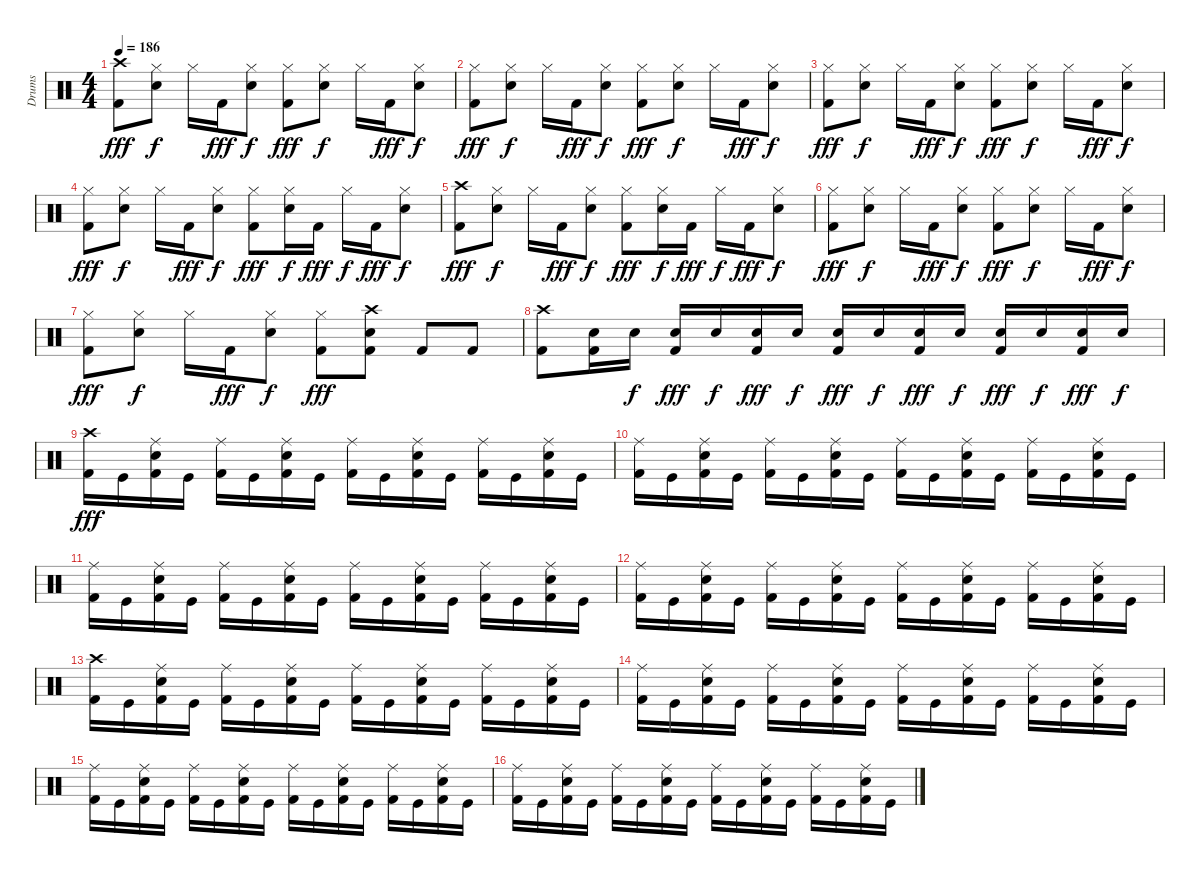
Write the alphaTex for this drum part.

\track ("Drums" "Drums") {instrument percussion}
\staff {score}
\articulation defaults
\ts (4 4)
\tempo 186
\clef neutral
\ks c
("Crash high (hit)" "Kick (hit) 2").8{dy fff} ("Hi-Hat (closed)" "Electric Snare (hit)").8{dy f} "Hi-Hat (closed)".16 "Kick (hit) 2".16{dy fff} ("Hi-Hat (closed)" "Electric Snare (hit)").8{dy f} ("Hi-Hat (closed)" "Kick (hit) 2").8{dy fff} ("Hi-Hat (closed)" "Electric Snare (hit)").8{dy f} "Hi-Hat (closed)".16 "Kick (hit) 2".16{dy fff} ("Hi-Hat (closed)" "Electric Snare (hit)").8{dy f} |
("Hi-Hat (closed)" "Kick (hit) 2").8{dy fff} ("Hi-Hat (closed)" "Electric Snare (hit)").8{dy f} "Hi-Hat (closed)".16 "Kick (hit) 2".16{dy fff} ("Hi-Hat (closed)" "Electric Snare (hit)").8{dy f} ("Hi-Hat (closed)" "Kick (hit) 2").8{dy fff} ("Hi-Hat (closed)" "Electric Snare (hit)").8{dy f} "Hi-Hat (closed)".16 "Kick (hit) 2".16{dy fff} ("Hi-Hat (closed)" "Electric Snare (hit)").8{dy f} |
("Hi-Hat (closed)" "Kick (hit) 2").8{dy fff} ("Hi-Hat (closed)" "Electric Snare (hit)").8{dy f} "Hi-Hat (closed)".16 "Kick (hit) 2".16{dy fff} ("Hi-Hat (closed)" "Electric Snare (hit)").8{dy f} ("Hi-Hat (closed)" "Kick (hit) 2").8{dy fff} ("Hi-Hat (closed)" "Electric Snare (hit)").8{dy f} "Hi-Hat (closed)".16 "Kick (hit) 2".16{dy fff} ("Hi-Hat (closed)" "Electric Snare (hit)").8{dy f} |
("Hi-Hat (closed)" "Kick (hit) 2").8{dy fff} ("Hi-Hat (closed)" "Electric Snare (hit)").8{dy f} "Hi-Hat (closed)".16 "Kick (hit) 2".16{dy fff} ("Hi-Hat (closed)" "Electric Snare (hit)").8{dy f} ("Hi-Hat (closed)" "Kick (hit) 2").8{dy fff} ("Hi-Hat (closed)" "Electric Snare (hit)").16{dy f} "Kick (hit) 2".16{dy fff} "Hi-Hat (closed)".16{dy f} "Kick (hit) 2".16{dy fff} ("Hi-Hat (closed)" "Electric Snare (hit)").8{dy f} |
("Crash high (hit)" "Kick (hit) 2").8{dy fff} ("Hi-Hat (closed)" "Electric Snare (hit)").8{dy f} "Hi-Hat (closed)".16 "Kick (hit) 2".16{dy fff} ("Hi-Hat (closed)" "Electric Snare (hit)").8{dy f} ("Hi-Hat (closed)" "Kick (hit) 2").8{dy fff} ("Hi-Hat (closed)" "Electric Snare (hit)").16{dy f} "Kick (hit) 2".16{dy fff} "Hi-Hat (closed)".16{dy f} "Kick (hit) 2".16{dy fff} ("Hi-Hat (closed)" "Electric Snare (hit)").8{dy f} |
("Hi-Hat (closed)" "Kick (hit) 2").8{dy fff} ("Hi-Hat (closed)" "Electric Snare (hit)").8{dy f} "Hi-Hat (closed)".16 "Kick (hit) 2".16{dy fff} ("Hi-Hat (closed)" "Electric Snare (hit)").8{dy f} ("Hi-Hat (closed)" "Kick (hit) 2").8{dy fff} ("Hi-Hat (closed)" "Electric Snare (hit)").8{dy f} "Hi-Hat (closed)".16 "Kick (hit) 2".16{dy fff} ("Hi-Hat (closed)" "Electric Snare (hit)").8{dy f} |
("Hi-Hat (closed)" "Kick (hit) 2").8{dy fff} ("Hi-Hat (closed)" "Electric Snare (hit)").8{dy f} "Hi-Hat (closed)".16 "Kick (hit) 2".16{dy fff} ("Hi-Hat (closed)" "Electric Snare (hit)").8{dy f} ("Hi-Hat (closed)" "Kick (hit) 2").8{dy fff} ("Crash high (hit)" "Electric Snare (hit)" "Kick (hit) 2").8 "Kick (hit) 2".8 "Kick (hit) 2".8 |
("Crash high (hit)" "Kick (hit) 2").8 ("Electric Snare (hit)" "Kick (hit) 2").16 "Electric Snare (hit)".16{dy f} ("Electric Snare (hit)" "Kick (hit) 2").16{dy fff} "Electric Snare (hit)".16{dy f} ("Electric Snare (hit)" "Kick (hit) 2").16{dy fff} "Electric Snare (hit)".16{dy f} ("Electric Snare (hit)" "Kick (hit) 2").16{dy fff} "Electric Snare (hit)".16{dy f} ("Electric Snare (hit)" "Kick (hit) 2").16{dy fff} "Electric Snare (hit)".16{dy f} ("Electric Snare (hit)" "Kick (hit) 2").16{dy fff} "Electric Snare (hit)".16{dy f} ("Electric Snare (hit)" "Kick (hit) 2").16{dy fff} "Electric Snare (hit)".16{dy f} |
("Crash high (hit)" "Kick (hit) 2").16{dy fff} "Kick (hit)".16 ("Ride (middle)" "Electric Snare (hit)" "Kick (hit) 2").16 "Kick (hit)".16 ("Ride (middle)" "Kick (hit) 2").16 "Kick (hit)".16 ("Ride (middle)" "Electric Snare (hit)" "Kick (hit) 2").16 "Kick (hit)".16 ("Ride (middle)" "Kick (hit) 2").16 "Kick (hit)".16 ("Ride (middle)" "Electric Snare (hit)" "Kick (hit) 2").16 "Kick (hit)".16 ("Ride (middle)" "Kick (hit) 2").16 "Kick (hit)".16 ("Ride (middle)" "Electric Snare (hit)" "Kick (hit) 2").16 "Kick (hit)".16 |
("Ride (middle)" "Kick (hit) 2").16 "Kick (hit)".16 ("Ride (middle)" "Electric Snare (hit)" "Kick (hit) 2").16 "Kick (hit)".16 ("Ride (middle)" "Kick (hit) 2").16 "Kick (hit)".16 ("Ride (middle)" "Electric Snare (hit)" "Kick (hit) 2").16 "Kick (hit)".16 ("Ride (middle)" "Kick (hit) 2").16 "Kick (hit)".16 ("Ride (middle)" "Electric Snare (hit)" "Kick (hit) 2").16 "Kick (hit)".16 ("Ride (middle)" "Kick (hit) 2").16 "Kick (hit)".16 ("Ride (middle)" "Electric Snare (hit)" "Kick (hit) 2").16 "Kick (hit)".16 |
("Ride (middle)" "Kick (hit) 2").16 "Kick (hit)".16 ("Ride (middle)" "Electric Snare (hit)" "Kick (hit) 2").16 "Kick (hit)".16 ("Ride (middle)" "Kick (hit) 2").16 "Kick (hit)".16 ("Ride (middle)" "Electric Snare (hit)" "Kick (hit) 2").16 "Kick (hit)".16 ("Ride (middle)" "Kick (hit) 2").16 "Kick (hit)".16 ("Ride (middle)" "Electric Snare (hit)" "Kick (hit) 2").16 "Kick (hit)".16 ("Ride (middle)" "Kick (hit) 2").16 "Kick (hit)".16 ("Ride (middle)" "Electric Snare (hit)" "Kick (hit) 2").16 "Kick (hit)".16 |
("Ride (middle)" "Kick (hit) 2").16 "Kick (hit)".16 ("Ride (middle)" "Electric Snare (hit)" "Kick (hit) 2").16 "Kick (hit)".16 ("Ride (middle)" "Kick (hit) 2").16 "Kick (hit)".16 ("Ride (middle)" "Electric Snare (hit)" "Kick (hit) 2").16 "Kick (hit)".16 ("Ride (middle)" "Kick (hit) 2").16 "Kick (hit)".16 ("Ride (middle)" "Electric Snare (hit)" "Kick (hit) 2").16 "Kick (hit)".16 ("Ride (middle)" "Kick (hit) 2").16 "Kick (hit)".16 ("Ride (middle)" "Electric Snare (hit)" "Kick (hit) 2").16 "Kick (hit)".16 |
("Crash high (hit)" "Kick (hit) 2").16 "Kick (hit)".16 ("Ride (middle)" "Electric Snare (hit)" "Kick (hit) 2").16 "Kick (hit)".16 ("Ride (middle)" "Kick (hit) 2").16 "Kick (hit)".16 ("Ride (middle)" "Electric Snare (hit)" "Kick (hit) 2").16 "Kick (hit)".16 ("Ride (middle)" "Kick (hit) 2").16 "Kick (hit)".16 ("Ride (middle)" "Electric Snare (hit)" "Kick (hit) 2").16 "Kick (hit)".16 ("Ride (middle)" "Kick (hit) 2").16 "Kick (hit)".16 ("Ride (middle)" "Electric Snare (hit)" "Kick (hit) 2").16 "Kick (hit)".16 |
("Ride (middle)" "Kick (hit) 2").16 "Kick (hit)".16 ("Ride (middle)" "Electric Snare (hit)" "Kick (hit) 2").16 "Kick (hit)".16 ("Ride (middle)" "Kick (hit) 2").16 "Kick (hit)".16 ("Ride (middle)" "Electric Snare (hit)" "Kick (hit) 2").16 "Kick (hit)".16 ("Ride (middle)" "Kick (hit) 2").16 "Kick (hit)".16 ("Ride (middle)" "Electric Snare (hit)" "Kick (hit) 2").16 "Kick (hit)".16 ("Ride (middle)" "Kick (hit) 2").16 "Kick (hit)".16 ("Ride (middle)" "Electric Snare (hit)" "Kick (hit) 2").16 "Kick (hit)".16 |
("Ride (middle)" "Kick (hit) 2").16 "Kick (hit)".16 ("Ride (middle)" "Electric Snare (hit)" "Kick (hit) 2").16 "Kick (hit)".16 ("Ride (middle)" "Kick (hit) 2").16 "Kick (hit)".16 ("Ride (middle)" "Electric Snare (hit)" "Kick (hit) 2").16 "Kick (hit)".16 ("Ride (middle)" "Kick (hit) 2").16 "Kick (hit)".16 ("Ride (middle)" "Electric Snare (hit)" "Kick (hit) 2").16 "Kick (hit)".16 ("Ride (middle)" "Kick (hit) 2").16 "Kick (hit)".16 ("Ride (middle)" "Electric Snare (hit)" "Kick (hit) 2").16 "Kick (hit)".16 |
("Ride (middle)" "Kick (hit) 2").16 "Kick (hit)".16 ("Ride (middle)" "Electric Snare (hit)" "Kick (hit) 2").16 "Kick (hit)".16 ("Ride (middle)" "Kick (hit) 2").16 "Kick (hit)".16 ("Ride (middle)" "Electric Snare (hit)" "Kick (hit) 2").16 "Kick (hit)".16 ("Ride (middle)" "Kick (hit) 2").16 "Kick (hit)".16 ("Ride (middle)" "Electric Snare (hit)" "Kick (hit) 2").16 "Kick (hit)".16 ("Ride (middle)" "Kick (hit) 2").16 "Kick (hit)".16 ("Ride (middle)" "Electric Snare (hit)" "Kick (hit) 2").16 "Kick (hit)".16
